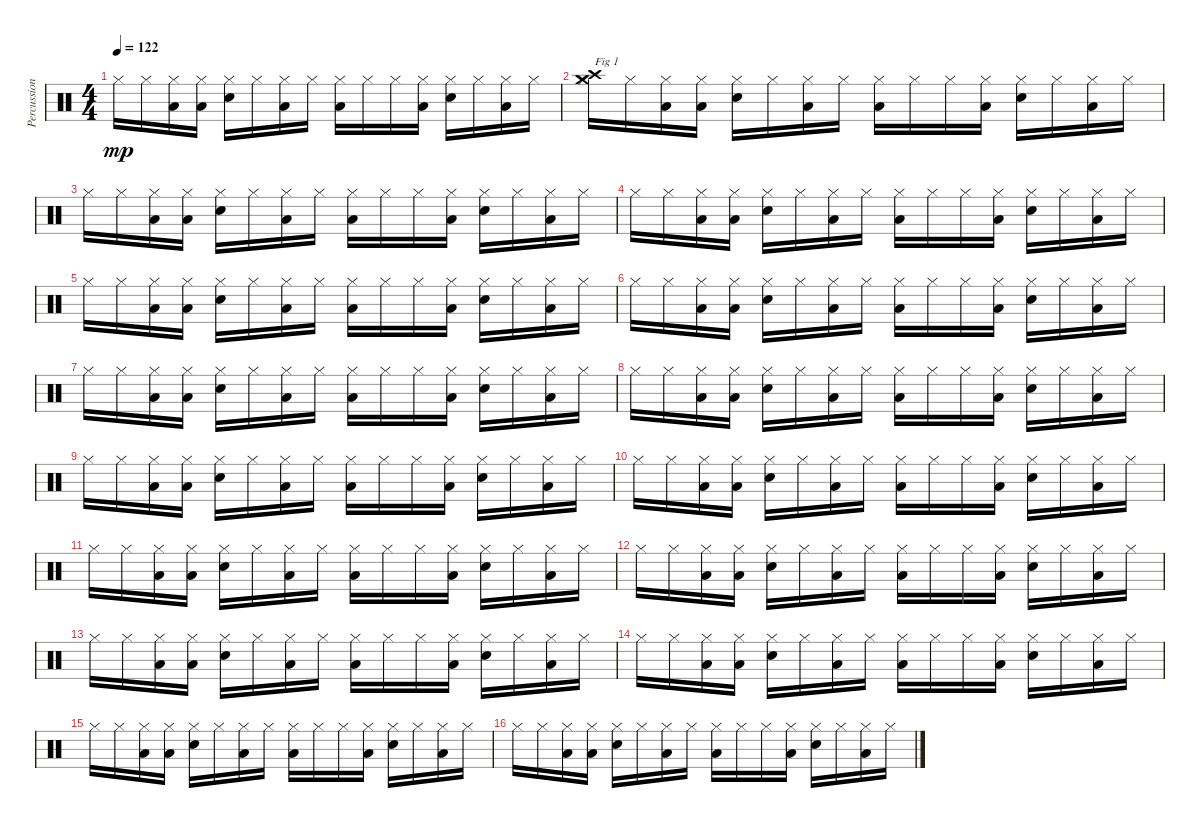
\track ("Percussions" "Percussion") {instrument percussion}
\staff {score}
\articulation defaults
\ts (4 4)
\tempo 122
\clef neutral
\ks c "Hi-Hat (closed)".16{dy mp} "Hi-Hat (closed)".16
("Low Floor Tom (hit)" "Hi-Hat (closed)").16 ("Low Floor Tom (hit)" "Hi-Hat (closed)").16 ("Snare (hit) 2" "Hi-Hat (closed)").16 "Hi-Hat (closed)".16 ("Low Floor Tom (hit)" "Hi-Hat (closed)").16 "Hi-Hat (closed)".16 ("Low Floor Tom (hit)" "Hi-Hat (closed)").16 "Hi-Hat (closed)".16 "Hi-Hat (closed)".16 ("Low Floor Tom (hit)" "Hi-Hat (closed)").16 ("Snare (hit) 2" "Hi-Hat (closed)").16 "Hi-Hat (closed)".16 ("Low Floor Tom (hit)" "Hi-Hat (closed)").16 "Hi-Hat (closed)".16 |
("Crash high (hit)" "Crash medium (hit)" "Hi-Hat (closed)").16{txt "Fig 1"} "Hi-Hat (closed)".16 ("Low Floor Tom (hit)" "Hi-Hat (closed)").16 ("Low Floor Tom (hit)" "Hi-Hat (closed)").16 ("Snare (hit) 2" "Hi-Hat (closed)").16 "Hi-Hat (closed)".16 ("Low Floor Tom (hit)" "Hi-Hat (closed)").16 "Hi-Hat (closed)".16 ("Low Floor Tom (hit)" "Hi-Hat (closed)").16 "Hi-Hat (closed)".16 "Hi-Hat (closed)".16 ("Low Floor Tom (hit)" "Hi-Hat (closed)").16 ("Snare (hit) 2" "Hi-Hat (closed)").16 "Hi-Hat (closed)".16 ("Low Floor Tom (hit)" "Hi-Hat (closed)").16 "Hi-Hat (closed)".16 |
"Hi-Hat (closed)".16 "Hi-Hat (closed)".16 ("Low Floor Tom (hit)" "Hi-Hat (closed)").16 ("Low Floor Tom (hit)" "Hi-Hat (closed)").16 ("Snare (hit) 2" "Hi-Hat (closed)").16 "Hi-Hat (closed)".16 ("Low Floor Tom (hit)" "Hi-Hat (closed)").16 "Hi-Hat (closed)".16 ("Low Floor Tom (hit)" "Hi-Hat (closed)").16 "Hi-Hat (closed)".16 "Hi-Hat (closed)".16 ("Low Floor Tom (hit)" "Hi-Hat (closed)").16 ("Snare (hit) 2" "Hi-Hat (closed)").16 "Hi-Hat (closed)".16 ("Low Floor Tom (hit)" "Hi-Hat (closed)").16 "Hi-Hat (closed)".16 |
"Hi-Hat (closed)".16 "Hi-Hat (closed)".16 ("Low Floor Tom (hit)" "Hi-Hat (closed)").16 ("Low Floor Tom (hit)" "Hi-Hat (closed)").16 ("Snare (hit) 2" "Hi-Hat (closed)").16 "Hi-Hat (closed)".16 ("Low Floor Tom (hit)" "Hi-Hat (closed)").16 "Hi-Hat (closed)".16 ("Low Floor Tom (hit)" "Hi-Hat (closed)").16 "Hi-Hat (closed)".16 "Hi-Hat (closed)".16 ("Low Floor Tom (hit)" "Hi-Hat (closed)").16 ("Snare (hit) 2" "Hi-Hat (closed)").16 "Hi-Hat (closed)".16 ("Low Floor Tom (hit)" "Hi-Hat (closed)").16 "Hi-Hat (closed)".16 |
"Hi-Hat (closed)".16 "Hi-Hat (closed)".16 ("Low Floor Tom (hit)" "Hi-Hat (closed)").16 ("Low Floor Tom (hit)" "Hi-Hat (closed)").16 ("Snare (hit) 2" "Hi-Hat (closed)").16 "Hi-Hat (closed)".16 ("Low Floor Tom (hit)" "Hi-Hat (closed)").16 "Hi-Hat (closed)".16 ("Low Floor Tom (hit)" "Hi-Hat (closed)").16 "Hi-Hat (closed)".16 "Hi-Hat (closed)".16 ("Low Floor Tom (hit)" "Hi-Hat (closed)").16 ("Snare (hit) 2" "Hi-Hat (closed)").16 "Hi-Hat (closed)".16 ("Low Floor Tom (hit)" "Hi-Hat (closed)").16 "Hi-Hat (closed)".16 |
"Hi-Hat (closed)".16 "Hi-Hat (closed)".16 ("Low Floor Tom (hit)" "Hi-Hat (closed)").16 ("Low Floor Tom (hit)" "Hi-Hat (closed)").16 ("Snare (hit) 2" "Hi-Hat (closed)").16 "Hi-Hat (closed)".16 ("Low Floor Tom (hit)" "Hi-Hat (closed)").16 "Hi-Hat (closed)".16 ("Low Floor Tom (hit)" "Hi-Hat (closed)").16 "Hi-Hat (closed)".16 "Hi-Hat (closed)".16 ("Low Floor Tom (hit)" "Hi-Hat (closed)").16 ("Snare (hit) 2" "Hi-Hat (closed)").16 "Hi-Hat (closed)".16 ("Low Floor Tom (hit)" "Hi-Hat (closed)").16 "Hi-Hat (closed)".16 |
"Hi-Hat (closed)".16 "Hi-Hat (closed)".16 ("Low Floor Tom (hit)" "Hi-Hat (closed)").16 ("Low Floor Tom (hit)" "Hi-Hat (closed)").16 ("Snare (hit) 2" "Hi-Hat (closed)").16 "Hi-Hat (closed)".16 ("Low Floor Tom (hit)" "Hi-Hat (closed)").16 "Hi-Hat (closed)".16 ("Low Floor Tom (hit)" "Hi-Hat (closed)").16 "Hi-Hat (closed)".16 "Hi-Hat (closed)".16 ("Low Floor Tom (hit)" "Hi-Hat (closed)").16 ("Snare (hit) 2" "Hi-Hat (closed)").16 "Hi-Hat (closed)".16 ("Low Floor Tom (hit)" "Hi-Hat (closed)").16 "Hi-Hat (closed)".16 |
"Hi-Hat (closed)".16 "Hi-Hat (closed)".16 ("Low Floor Tom (hit)" "Hi-Hat (closed)").16 ("Low Floor Tom (hit)" "Hi-Hat (closed)").16 ("Snare (hit) 2" "Hi-Hat (closed)").16 "Hi-Hat (closed)".16 ("Low Floor Tom (hit)" "Hi-Hat (closed)").16 "Hi-Hat (closed)".16 ("Low Floor Tom (hit)" "Hi-Hat (closed)").16 "Hi-Hat (closed)".16 "Hi-Hat (closed)".16 ("Low Floor Tom (hit)" "Hi-Hat (closed)").16 ("Snare (hit) 2" "Hi-Hat (closed)").16 "Hi-Hat (closed)".16 ("Low Floor Tom (hit)" "Hi-Hat (closed)").16 "Hi-Hat (closed)".16 |
"Hi-Hat (closed)".16 "Hi-Hat (closed)".16 ("Low Floor Tom (hit)" "Hi-Hat (closed)").16 ("Low Floor Tom (hit)" "Hi-Hat (closed)").16 ("Snare (hit) 2" "Hi-Hat (closed)").16 "Hi-Hat (closed)".16 ("Low Floor Tom (hit)" "Hi-Hat (closed)").16 "Hi-Hat (closed)".16 ("Low Floor Tom (hit)" "Hi-Hat (closed)").16 "Hi-Hat (closed)".16 "Hi-Hat (closed)".16 ("Low Floor Tom (hit)" "Hi-Hat (closed)").16 ("Snare (hit) 2" "Hi-Hat (closed)").16 "Hi-Hat (closed)".16 ("Low Floor Tom (hit)" "Hi-Hat (closed)").16 "Hi-Hat (closed)".16 |
"Hi-Hat (closed)".16 "Hi-Hat (closed)".16 ("Low Floor Tom (hit)" "Hi-Hat (closed)").16 ("Low Floor Tom (hit)" "Hi-Hat (closed)").16 ("Snare (hit) 2" "Hi-Hat (closed)").16 "Hi-Hat (closed)".16 ("Low Floor Tom (hit)" "Hi-Hat (closed)").16 "Hi-Hat (closed)".16 ("Low Floor Tom (hit)" "Hi-Hat (closed)").16 "Hi-Hat (closed)".16 "Hi-Hat (closed)".16 ("Low Floor Tom (hit)" "Hi-Hat (closed)").16 ("Snare (hit) 2" "Hi-Hat (closed)").16 "Hi-Hat (closed)".16 ("Low Floor Tom (hit)" "Hi-Hat (closed)").16 "Hi-Hat (closed)".16 |
"Hi-Hat (closed)".16 "Hi-Hat (closed)".16 ("Low Floor Tom (hit)" "Hi-Hat (closed)").16 ("Low Floor Tom (hit)" "Hi-Hat (closed)").16 ("Snare (hit) 2" "Hi-Hat (closed)").16 "Hi-Hat (closed)".16 ("Low Floor Tom (hit)" "Hi-Hat (closed)").16 "Hi-Hat (closed)".16 ("Low Floor Tom (hit)" "Hi-Hat (closed)").16 "Hi-Hat (closed)".16 "Hi-Hat (closed)".16 ("Low Floor Tom (hit)" "Hi-Hat (closed)").16 ("Snare (hit) 2" "Hi-Hat (closed)").16 "Hi-Hat (closed)".16 ("Low Floor Tom (hit)" "Hi-Hat (closed)").16 "Hi-Hat (closed)".16 |
"Hi-Hat (closed)".16 "Hi-Hat (closed)".16 ("Low Floor Tom (hit)" "Hi-Hat (closed)").16 ("Low Floor Tom (hit)" "Hi-Hat (closed)").16 ("Snare (hit) 2" "Hi-Hat (closed)").16 "Hi-Hat (closed)".16 ("Low Floor Tom (hit)" "Hi-Hat (closed)").16 "Hi-Hat (closed)".16 ("Low Floor Tom (hit)" "Hi-Hat (closed)").16 "Hi-Hat (closed)".16 "Hi-Hat (closed)".16 ("Low Floor Tom (hit)" "Hi-Hat (closed)").16 ("Snare (hit) 2" "Hi-Hat (closed)").16 "Hi-Hat (closed)".16 ("Low Floor Tom (hit)" "Hi-Hat (closed)").16 "Hi-Hat (closed)".16 |
"Hi-Hat (closed)".16 "Hi-Hat (closed)".16 ("Low Floor Tom (hit)" "Hi-Hat (closed)").16 ("Low Floor Tom (hit)" "Hi-Hat (closed)").16 ("Snare (hit) 2" "Hi-Hat (closed)").16 "Hi-Hat (closed)".16 ("Low Floor Tom (hit)" "Hi-Hat (closed)").16 "Hi-Hat (closed)".16 ("Low Floor Tom (hit)" "Hi-Hat (closed)").16 "Hi-Hat (closed)".16 "Hi-Hat (closed)".16 ("Low Floor Tom (hit)" "Hi-Hat (closed)").16 ("Snare (hit) 2" "Hi-Hat (closed)").16 "Hi-Hat (closed)".16 ("Low Floor Tom (hit)" "Hi-Hat (closed)").16 "Hi-Hat (closed)".16 |
"Hi-Hat (closed)".16 "Hi-Hat (closed)".16 ("Low Floor Tom (hit)" "Hi-Hat (closed)").16 ("Low Floor Tom (hit)" "Hi-Hat (closed)").16 ("Snare (hit) 2" "Hi-Hat (closed)").16 "Hi-Hat (closed)".16 ("Low Floor Tom (hit)" "Hi-Hat (closed)").16 "Hi-Hat (closed)".16 ("Low Floor Tom (hit)" "Hi-Hat (closed)").16 "Hi-Hat (closed)".16 "Hi-Hat (closed)".16 ("Low Floor Tom (hit)" "Hi-Hat (closed)").16 ("Snare (hit) 2" "Hi-Hat (closed)").16 "Hi-Hat (closed)".16 ("Low Floor Tom (hit)" "Hi-Hat (closed)").16 "Hi-Hat (closed)".16 |
"Hi-Hat (closed)".16 "Hi-Hat (closed)".16 ("Low Floor Tom (hit)" "Hi-Hat (closed)").16 ("Low Floor Tom (hit)" "Hi-Hat (closed)").16 ("Snare (hit) 2" "Hi-Hat (closed)").16 "Hi-Hat (closed)".16 ("Low Floor Tom (hit)" "Hi-Hat (closed)").16 "Hi-Hat (closed)".16 ("Low Floor Tom (hit)" "Hi-Hat (closed)").16 "Hi-Hat (closed)".16 "Hi-Hat (closed)".16 ("Low Floor Tom (hit)" "Hi-Hat (closed)").16 ("Snare (hit) 2" "Hi-Hat (closed)").16 "Hi-Hat (closed)".16 ("Low Floor Tom (hit)" "Hi-Hat (closed)").16 "Hi-Hat (closed)".16 |
"Hi-Hat (closed)".16 "Hi-Hat (closed)".16 ("Low Floor Tom (hit)" "Hi-Hat (closed)").16 ("Low Floor Tom (hit)" "Hi-Hat (closed)").16 ("Snare (hit) 2" "Hi-Hat (closed)").16 "Hi-Hat (closed)".16 ("Low Floor Tom (hit)" "Hi-Hat (closed)").16 "Hi-Hat (closed)".16 ("Low Floor Tom (hit)" "Hi-Hat (closed)").16 "Hi-Hat (closed)".16 "Hi-Hat (closed)".16 ("Low Floor Tom (hit)" "Hi-Hat (closed)").16 ("Snare (hit) 2" "Hi-Hat (closed)").16 "Hi-Hat (closed)".16 ("Low Floor Tom (hit)" "Hi-Hat (closed)").16 "Hi-Hat (closed)".16
